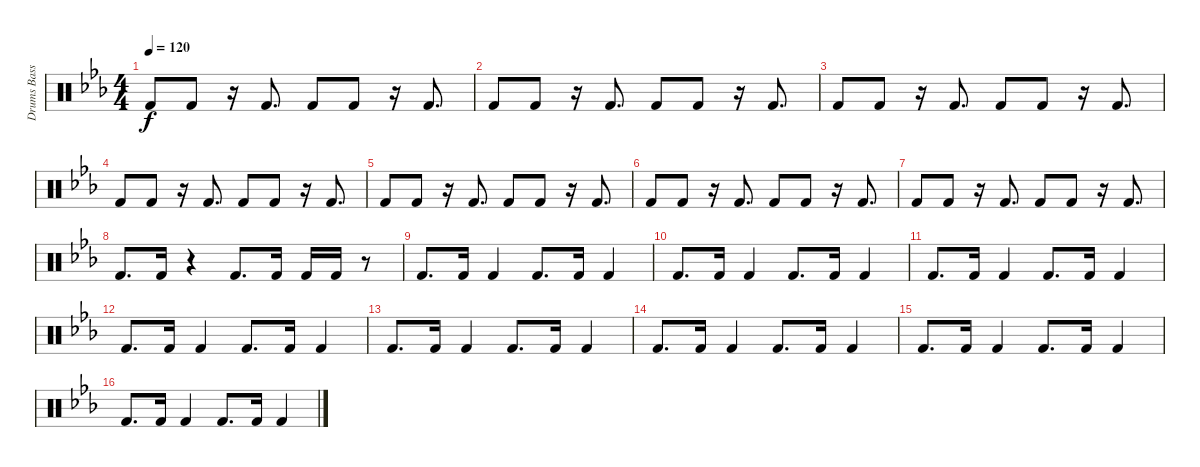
\track ("Drums Bass" "Drums Bass") {instrument percussion}
\staff {score}
\articulation defaults
\ts (4 4)
\tempo 120
\clef neutral
\ks eb "Kick (hit) 2".8{dy f} "Kick (hit) 2".8
r.16 "Kick (hit) 2".8{d} "Kick (hit) 2".8 "Kick (hit) 2".8 r.16 "Kick (hit) 2".8{d} |
"Kick (hit) 2".8 "Kick (hit) 2".8 r.16 "Kick (hit) 2".8{d} "Kick (hit) 2".8 "Kick (hit) 2".8 r.16 "Kick (hit) 2".8{d} |
"Kick (hit) 2".8 "Kick (hit) 2".8 r.16 "Kick (hit) 2".8{d} "Kick (hit) 2".8 "Kick (hit) 2".8 r.16 "Kick (hit) 2".8{d} |
"Kick (hit) 2".8 "Kick (hit) 2".8 r.16 "Kick (hit) 2".8{d} "Kick (hit) 2".8 "Kick (hit) 2".8 r.16 "Kick (hit) 2".8{d} |
"Kick (hit) 2".8 "Kick (hit) 2".8 r.16 "Kick (hit) 2".8{d} "Kick (hit) 2".8 "Kick (hit) 2".8 r.16 "Kick (hit) 2".8{d} |
"Kick (hit) 2".8 "Kick (hit) 2".8 r.16 "Kick (hit) 2".8{d} "Kick (hit) 2".8 "Kick (hit) 2".8 r.16 "Kick (hit) 2".8{d} |
"Kick (hit) 2".8 "Kick (hit) 2".8 r.16 "Kick (hit) 2".8{d} "Kick (hit) 2".8 "Kick (hit) 2".8 r.16 "Kick (hit) 2".8{d} |
"Kick (hit) 2".8{d} "Kick (hit) 2".16 r.4 "Kick (hit) 2".8{d} "Kick (hit) 2".16 "Kick (hit) 2".16 "Kick (hit) 2".16 r.8 |
"Kick (hit) 2".8{d} "Kick (hit) 2".16 "Kick (hit) 2".4 "Kick (hit) 2".8{d} "Kick (hit) 2".16 "Kick (hit) 2".4 |
"Kick (hit) 2".8{d} "Kick (hit) 2".16 "Kick (hit) 2".4 "Kick (hit) 2".8{d} "Kick (hit) 2".16 "Kick (hit) 2".4 |
"Kick (hit) 2".8{d} "Kick (hit) 2".16 "Kick (hit) 2".4 "Kick (hit) 2".8{d} "Kick (hit) 2".16 "Kick (hit) 2".4 |
"Kick (hit) 2".8{d} "Kick (hit) 2".16 "Kick (hit) 2".4 "Kick (hit) 2".8{d} "Kick (hit) 2".16 "Kick (hit) 2".4 |
"Kick (hit) 2".8{d} "Kick (hit) 2".16 "Kick (hit) 2".4 "Kick (hit) 2".8{d} "Kick (hit) 2".16 "Kick (hit) 2".4 |
"Kick (hit) 2".8{d} "Kick (hit) 2".16 "Kick (hit) 2".4 "Kick (hit) 2".8{d} "Kick (hit) 2".16 "Kick (hit) 2".4 |
"Kick (hit) 2".8{d} "Kick (hit) 2".16 "Kick (hit) 2".4 "Kick (hit) 2".8{d} "Kick (hit) 2".16 "Kick (hit) 2".4 |
"Kick (hit) 2".8{d} "Kick (hit) 2".16 "Kick (hit) 2".4 "Kick (hit) 2".8{d} "Kick (hit) 2".16 "Kick (hit) 2".4
